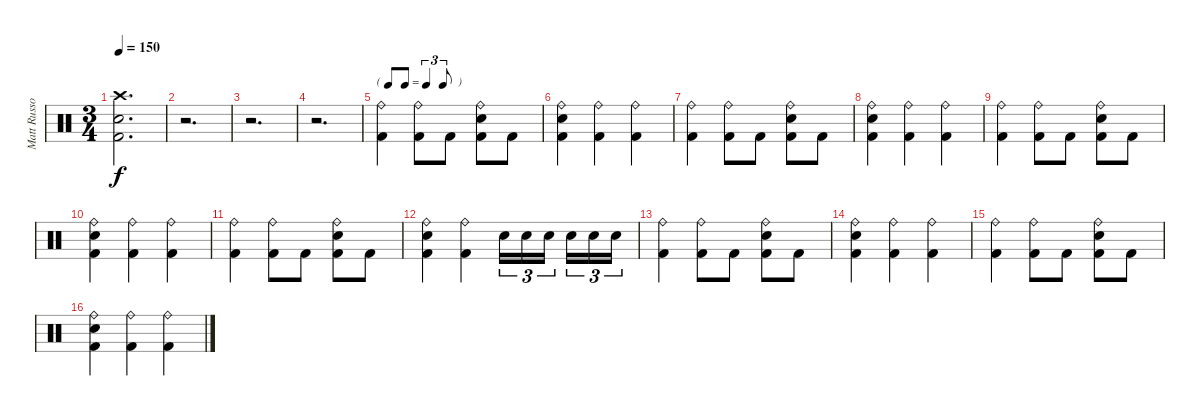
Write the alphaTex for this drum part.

\track ("Matt Russo" "Matt Russo") {instrument percussion}
\staff {score}
\articulation defaults
\ts (3 4)
\tempo 150
\clef neutral
\ks c
("Crash high (hit)" "Electric Snare (hit)" "Kick (hit) 2").2{d dy f} |
r.2{d} |
r.2{d} |
r.2{d} |
\tf triplet8th
("Ride (bell)" "Kick (hit) 2").4 ("Ride (bell)" "Kick (hit) 2").8 "Kick (hit) 2".8 ("Ride (bell)" "Electric Snare (hit)" "Kick (hit) 2").8 "Kick (hit) 2".8 |
("Ride (bell)" "Electric Snare (hit)" "Kick (hit) 2").4 ("Ride (bell)" "Kick (hit) 2").4 ("Ride (bell)" "Kick (hit) 2").4 |
("Ride (bell)" "Kick (hit) 2").4 ("Ride (bell)" "Kick (hit) 2").8 "Kick (hit) 2".8 ("Ride (bell)" "Electric Snare (hit)" "Kick (hit) 2").8 "Kick (hit) 2".8 |
("Ride (bell)" "Electric Snare (hit)" "Kick (hit) 2").4 ("Ride (bell)" "Kick (hit) 2").4 ("Ride (bell)" "Kick (hit) 2").4 |
("Ride (bell)" "Kick (hit) 2").4 ("Ride (bell)" "Kick (hit) 2").8 "Kick (hit) 2".8 ("Ride (bell)" "Electric Snare (hit)" "Kick (hit) 2").8 "Kick (hit) 2".8 |
("Ride (bell)" "Electric Snare (hit)" "Kick (hit) 2").4 ("Ride (bell)" "Kick (hit) 2").4 ("Ride (bell)" "Kick (hit) 2").4 |
("Ride (bell)" "Kick (hit) 2").4 ("Ride (bell)" "Kick (hit) 2").8 "Kick (hit) 2".8 ("Ride (bell)" "Electric Snare (hit)" "Kick (hit) 2").8 "Kick (hit) 2".8 |
("Ride (bell)" "Electric Snare (hit)" "Kick (hit) 2").4 ("Ride (bell)" "Kick (hit) 2").4 "Electric Snare (hit)".16{tu (3 2)} "Electric Snare (hit)".16{tu (3 2)} "Electric Snare (hit)".16{tu (3 2) beam splitsecondary} "Electric Snare (hit)".16{tu (3 2)} "Electric Snare (hit)".16{tu (3 2)} "Electric Snare (hit)".16{tu (3 2)} |
("Ride (bell)" "Kick (hit) 2").4 ("Ride (bell)" "Kick (hit) 2").8 "Kick (hit) 2".8 ("Ride (bell)" "Electric Snare (hit)" "Kick (hit) 2").8 "Kick (hit) 2".8 |
("Ride (bell)" "Electric Snare (hit)" "Kick (hit) 2").4 ("Ride (bell)" "Kick (hit) 2").4 ("Ride (bell)" "Kick (hit) 2").4 |
("Ride (bell)" "Kick (hit) 2").4 ("Ride (bell)" "Kick (hit) 2").8 "Kick (hit) 2".8 ("Ride (bell)" "Electric Snare (hit)" "Kick (hit) 2").8 "Kick (hit) 2".8 |
("Ride (bell)" "Electric Snare (hit)" "Kick (hit) 2").4 ("Ride (bell)" "Kick (hit) 2").4 ("Ride (bell)" "Kick (hit) 2").4
